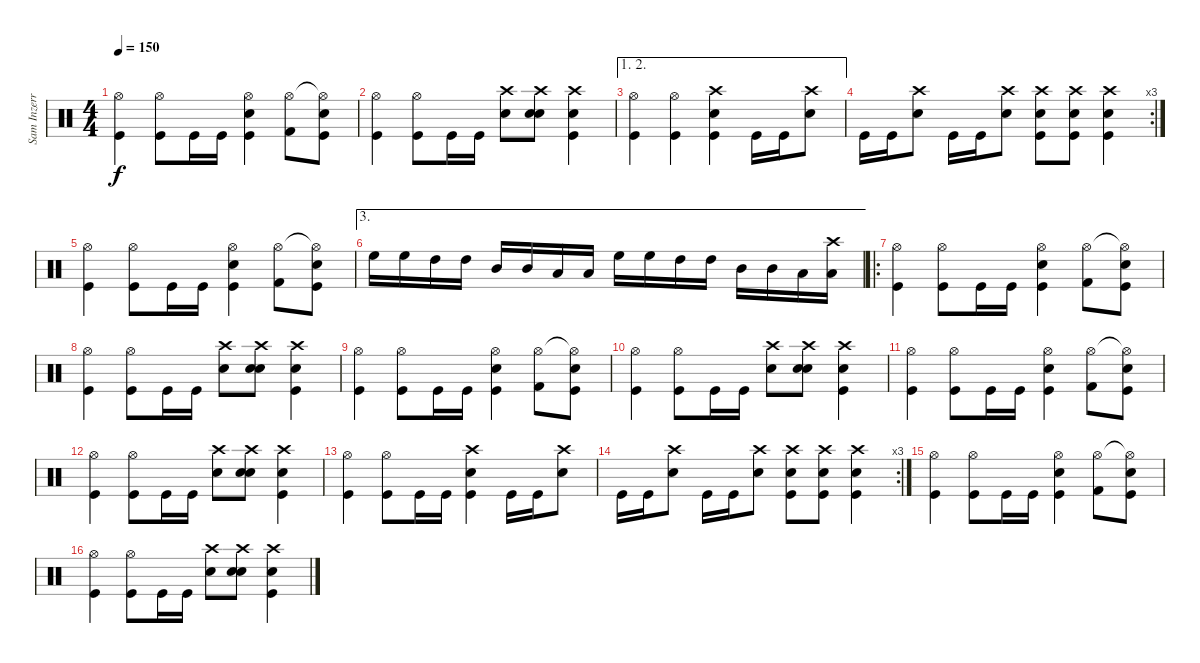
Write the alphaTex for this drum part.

\track ("Sam Inzerra(Percusión)" "Sam Inzerr") {instrument percussion}
\staff {score}
\articulation defaults
\ts (4 4)
\tempo 150
\clef neutral
\ks c
("Hi-Hat (open)" "Kick (hit)").4{dy f} ("Hi-Hat (open)" "Kick (hit)").8 "Kick (hit)".16 "Kick (hit)".16 ("Hi-Hat (open)" "Electric Snare (hit)" "Kick (hit)").4 ("Hi-Hat (open)" "Kick (hit) 2").8 ("Hi-Hat (open)"{t} "Electric Snare (hit)" "Kick (hit)").8 |
("Hi-Hat (open)" "Kick (hit)").4 ("Hi-Hat (open)" "Kick (hit)").8 "Kick (hit)".16 "Kick (hit)".16 ("Crash high (hit)" "Electric Snare (hit)").8 ("Crash high (hit)" "Electric Snare (hit)" "Electric Snare (hit)").8 ("Crash high (hit)" "Electric Snare (hit)" "Kick (hit)").4 |
\ae (1 2)
("Hi-Hat (open)" "Kick (hit)").4 ("Hi-Hat (open)" "Kick (hit)").4 ("Crash high (hit)" "Electric Snare (hit)" "Kick (hit)").4 "Kick (hit)".16 "Kick (hit)".16 ("Crash high (hit)" "Electric Snare (hit)").8 |
\rc 3 "Kick (hit)".16 "Kick (hit)".16
("Crash high (hit)" "Electric Snare (hit)").8 "Kick (hit)".16 "Kick (hit)".16 ("Crash high (hit)" "Electric Snare (hit)").8 ("Crash high (hit)" "Electric Snare (hit)" "Kick (hit)").8 ("Crash high (hit)" "Electric Snare (hit)" "Kick (hit)").8 ("Crash high (hit)" "Electric Snare (hit)" "Kick (hit)").4 |
("Hi-Hat (open)" "Kick (hit)").4 ("Hi-Hat (open)" "Kick (hit)").8 "Kick (hit)".16 "Kick (hit)".16 ("Hi-Hat (open)" "Electric Snare (hit)" "Kick (hit)").4 ("Hi-Hat (open)" "Kick (hit) 2").8 ("Hi-Hat (open)"{t} "Electric Snare (hit)" "Kick (hit)").8 |
\ae 3 "High Floor Tom (hit)".16 "High Floor Tom (hit)".16 "High Tom (hit)".16 "High Tom (hit)".16 "Mid Tom (hit)".16 "Mid Tom (hit)".16 "Low Tom (hit)".16 "Low Tom (hit)".16 "High Floor Tom (hit)".16 "High Floor Tom (hit)".16 "High Tom (hit)".16 "High Tom (hit)".16 "Mid Tom (hit)".16 "Mid Tom (hit)".16 "Low Tom (hit)".16
("Crash high (hit)" "Low Tom (hit)").16 |
\ro
("Hi-Hat (open)" "Kick (hit)").4 ("Hi-Hat (open)" "Kick (hit)").8 "Kick (hit)".16 "Kick (hit)".16 ("Hi-Hat (open)" "Electric Snare (hit)" "Kick (hit)").4 ("Hi-Hat (open)" "Kick (hit) 2").8 ("Hi-Hat (open)"{t} "Electric Snare (hit)" "Kick (hit)").8 |
("Hi-Hat (open)" "Kick (hit)").4 ("Hi-Hat (open)" "Kick (hit)").8 "Kick (hit)".16 "Kick (hit)".16 ("Crash high (hit)" "Electric Snare (hit)").8 ("Crash high (hit)" "Electric Snare (hit)" "Electric Snare (hit)").8 ("Crash high (hit)" "Electric Snare (hit)" "Kick (hit)").4 |
("Hi-Hat (open)" "Kick (hit)").4 ("Hi-Hat (open)" "Kick (hit)").8 "Kick (hit)".16 "Kick (hit)".16 ("Hi-Hat (open)" "Electric Snare (hit)" "Kick (hit)").4 ("Hi-Hat (open)" "Kick (hit) 2").8 ("Hi-Hat (open)"{t} "Electric Snare (hit)" "Kick (hit)").8 |
("Hi-Hat (open)" "Kick (hit)").4 ("Hi-Hat (open)" "Kick (hit)").8 "Kick (hit)".16 "Kick (hit)".16 ("Crash high (hit)" "Electric Snare (hit)").8 ("Crash high (hit)" "Electric Snare (hit)" "Electric Snare (hit)").8 ("Crash high (hit)" "Electric Snare (hit)" "Kick (hit)").4 |
("Hi-Hat (open)" "Kick (hit)").4 ("Hi-Hat (open)" "Kick (hit)").8 "Kick (hit)".16 "Kick (hit)".16 ("Hi-Hat (open)" "Electric Snare (hit)" "Kick (hit)").4 ("Hi-Hat (open)" "Kick (hit) 2").8 ("Hi-Hat (open)"{t} "Electric Snare (hit)" "Kick (hit)").8 |
("Hi-Hat (open)" "Kick (hit)").4 ("Hi-Hat (open)" "Kick (hit)").8 "Kick (hit)".16 "Kick (hit)".16 ("Crash high (hit)" "Electric Snare (hit)").8 ("Crash high (hit)" "Electric Snare (hit)" "Electric Snare (hit)").8 ("Crash high (hit)" "Electric Snare (hit)" "Kick (hit)").4 |
("Hi-Hat (open)" "Kick (hit)").4 ("Hi-Hat (open)" "Kick (hit)").8 "Kick (hit)".16 "Kick (hit)".16 ("Crash high (hit)" "Electric Snare (hit)" "Kick (hit)").4 "Kick (hit)".16 "Kick (hit)".16 ("Crash high (hit)" "Electric Snare (hit)").8 |
\rc 3 "Kick (hit)".16 "Kick (hit)".16
("Crash high (hit)" "Electric Snare (hit)").8 "Kick (hit)".16 "Kick (hit)".16 ("Crash high (hit)" "Electric Snare (hit)").8 ("Crash high (hit)" "Electric Snare (hit)" "Kick (hit)").8 ("Crash high (hit)" "Electric Snare (hit)" "Kick (hit)").8 ("Crash high (hit)" "Electric Snare (hit)" "Kick (hit)").4 |
("Hi-Hat (open)" "Kick (hit)").4 ("Hi-Hat (open)" "Kick (hit)").8 "Kick (hit)".16 "Kick (hit)".16 ("Hi-Hat (open)" "Electric Snare (hit)" "Kick (hit)").4 ("Hi-Hat (open)" "Kick (hit) 2").8 ("Hi-Hat (open)"{t} "Electric Snare (hit)" "Kick (hit)").8 |
("Hi-Hat (open)" "Kick (hit)").4 ("Hi-Hat (open)" "Kick (hit)").8 "Kick (hit)".16 "Kick (hit)".16 ("Crash high (hit)" "Electric Snare (hit)").8 ("Crash high (hit)" "Electric Snare (hit)" "Electric Snare (hit)").8 ("Crash high (hit)" "Electric Snare (hit)" "Kick (hit)").4
